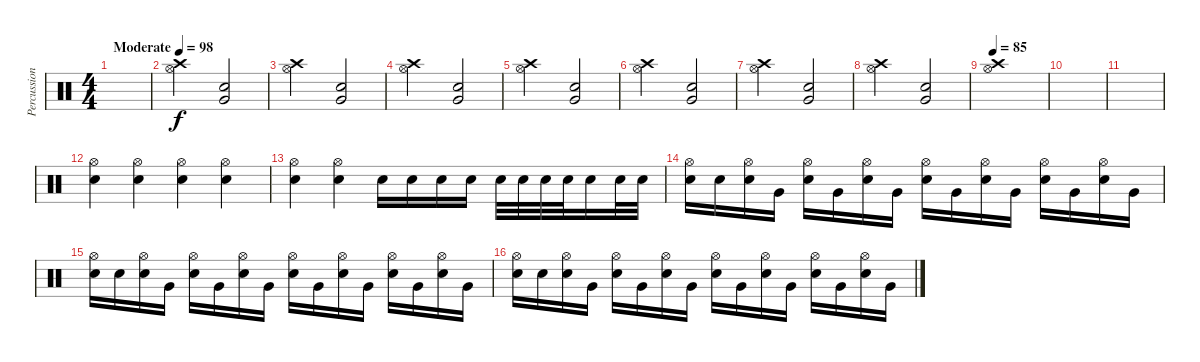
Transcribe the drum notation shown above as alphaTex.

\track ("Percussion" "Percussion") {instrument percussion}
\staff {score}
\articulation defaults
\ts (4 4)
\tempo (98 "Moderate")
\clef neutral
\ks c
|
("Crash high (hit)" "Hi-Hat (open)").2 ("Very Low Tom (hit)" "Electric Snare (hit)").2 |
("Crash high (hit)" "Hi-Hat (open)").2 ("Very Low Tom (hit)" "Electric Snare (hit)").2 |
("Crash high (hit)" "Hi-Hat (open)").2 ("Very Low Tom (hit)" "Electric Snare (hit)").2 |
("Crash high (hit)" "Hi-Hat (open)").2 ("Very Low Tom (hit)" "Electric Snare (hit)").2 |
("Crash high (hit)" "Hi-Hat (open)").2 ("Very Low Tom (hit)" "Electric Snare (hit)").2 |
("Crash high (hit)" "Hi-Hat (open)").2 ("Very Low Tom (hit)" "Electric Snare (hit)").2 |
("Crash high (hit)" "Hi-Hat (open)").2 ("Very Low Tom (hit)" "Electric Snare (hit)").2 |
\tempo 85
("Crash high (hit)" "Hi-Hat (open)").1 |
|
|
("Hi-Hat (open)" "Electric Snare (hit)").4 ("Hi-Hat (open)" "Electric Snare (hit)").4 ("Hi-Hat (open)" "Electric Snare (hit)").4 ("Hi-Hat (open)" "Electric Snare (hit)").4 |
("Hi-Hat (open)" "Electric Snare (hit)").4 ("Hi-Hat (open)" "Electric Snare (hit)").4 "Electric Snare (hit)".16 "Electric Snare (hit)".16 "Electric Snare (hit)".16 "Electric Snare (hit)".16 "Electric Snare (hit)".32 "Electric Snare (hit)".32 "Electric Snare (hit)".32 "Electric Snare (hit)".32 "Electric Snare (hit)".16 "Electric Snare (hit)".32 "Electric Snare (hit)".32 |
("Hi-Hat (open)" "Electric Snare (hit)").16 "Electric Snare (hit)".16 ("Hi-Hat (open)" "Electric Snare (hit)").16 "Very Low Tom (hit)".16 ("Hi-Hat (open)" "Electric Snare (hit)").16 "Very Low Tom (hit)".16 ("Hi-Hat (open)" "Electric Snare (hit)").16 "Very Low Tom (hit)".16 ("Hi-Hat (open)" "Electric Snare (hit)").16 "Very Low Tom (hit)".16 ("Hi-Hat (open)" "Electric Snare (hit)").16 "Very Low Tom (hit)".16 ("Hi-Hat (open)" "Electric Snare (hit)").16 "Very Low Tom (hit)".16 ("Hi-Hat (open)" "Electric Snare (hit)").16 "Very Low Tom (hit)".16 |
("Hi-Hat (open)" "Electric Snare (hit)").16 "Electric Snare (hit)".16 ("Hi-Hat (open)" "Electric Snare (hit)").16 "Very Low Tom (hit)".16 ("Hi-Hat (open)" "Electric Snare (hit)").16 "Very Low Tom (hit)".16 ("Hi-Hat (open)" "Electric Snare (hit)").16 "Very Low Tom (hit)".16 ("Hi-Hat (open)" "Electric Snare (hit)").16 "Very Low Tom (hit)".16 ("Hi-Hat (open)" "Electric Snare (hit)").16 "Very Low Tom (hit)".16 ("Hi-Hat (open)" "Electric Snare (hit)").16 "Very Low Tom (hit)".16 ("Hi-Hat (open)" "Electric Snare (hit)").16 "Very Low Tom (hit)".16 |
("Hi-Hat (open)" "Electric Snare (hit)").16 "Electric Snare (hit)".16 ("Hi-Hat (open)" "Electric Snare (hit)").16 "Very Low Tom (hit)".16 ("Hi-Hat (open)" "Electric Snare (hit)").16 "Very Low Tom (hit)".16 ("Hi-Hat (open)" "Electric Snare (hit)").16 "Very Low Tom (hit)".16 ("Hi-Hat (open)" "Electric Snare (hit)").16 "Very Low Tom (hit)".16 ("Hi-Hat (open)" "Electric Snare (hit)").16 "Very Low Tom (hit)".16 ("Hi-Hat (open)" "Electric Snare (hit)").16 "Very Low Tom (hit)".16 ("Hi-Hat (open)" "Electric Snare (hit)").16 "Very Low Tom (hit)".16
